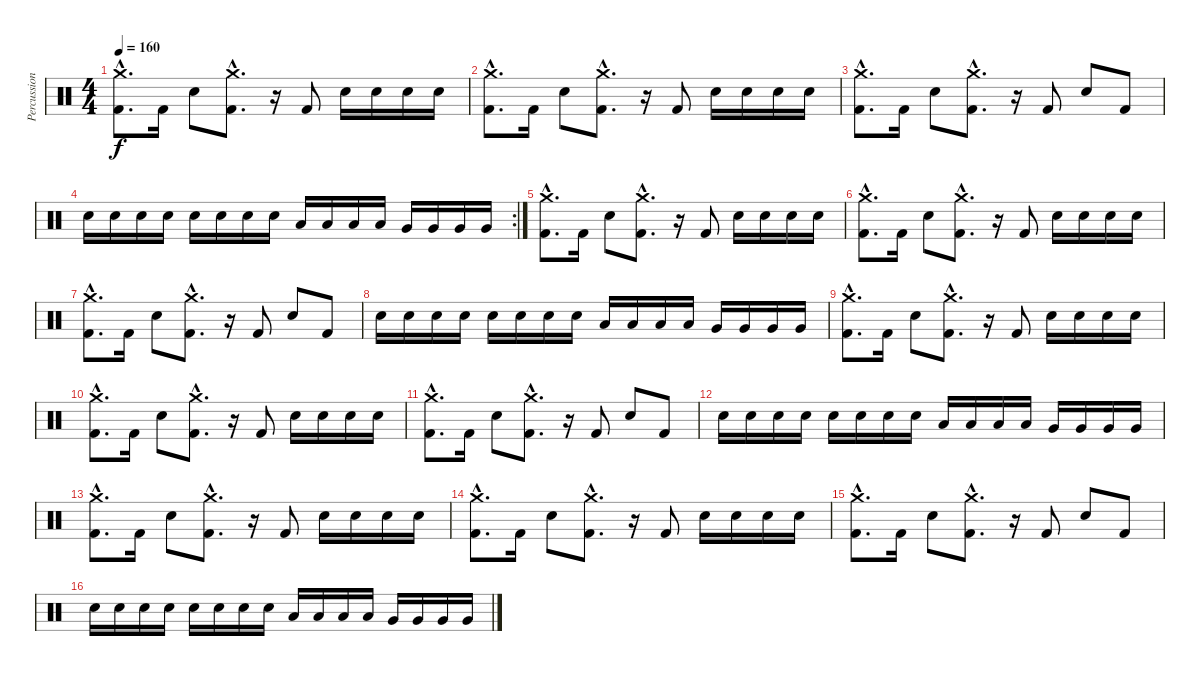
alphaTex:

\track ("Percussion" "Percussion") {instrument percussion}
\staff {score}
\articulation defaults
\ts (4 4)
\tempo 160
\clef neutral
\ks c
("Kick (hit) 2"{hac} "Crash medium (hit)"{hac}).8{d dy f} "Kick (hit) 2".16 "Electric Snare (hit)".8 ("Kick (hit) 2"{hac} "Crash medium (hit)"{hac}).8{d} r.16 "Kick (hit) 2".8 "Electric Snare (hit)".16 "Electric Snare (hit)".16 "Electric Snare (hit)".16 "Electric Snare (hit)".16 |
("Kick (hit) 2"{hac} "Crash medium (hit)"{hac}).8{d} "Kick (hit) 2".16 "Electric Snare (hit)".8 ("Kick (hit) 2"{hac} "Crash medium (hit)"{hac}).8{d} r.16 "Kick (hit) 2".8 "Electric Snare (hit)".16 "Electric Snare (hit)".16 "Electric Snare (hit)".16 "Electric Snare (hit)".16 |
("Kick (hit) 2"{hac} "Crash medium (hit)"{hac}).8{d} "Kick (hit) 2".16 "Electric Snare (hit)".8 ("Kick (hit) 2"{hac} "Crash medium (hit)"{hac}).8{d} r.16 "Kick (hit) 2".8 "Electric Snare (hit)".8 "Kick (hit) 2".8 |
\rc 2 "Electric Snare (hit)".16 "Electric Snare (hit)".16 "Electric Snare (hit)".16 "Electric Snare (hit)".16 "Electric Snare (hit)".16 "Electric Snare (hit)".16 "Electric Snare (hit)".16 "Electric Snare (hit)".16 "Low Tom (hit)".16 "Low Tom (hit)".16 "Low Tom (hit)".16 "Low Tom (hit)".16 "Very Low Tom (hit)".16 "Very Low Tom (hit)".16 "Very Low Tom (hit)".16 "Very Low Tom (hit)".16
|
("Kick (hit) 2"{hac} "Crash medium (hit)"{hac}).8{d} "Kick (hit) 2".16 "Electric Snare (hit)".8 ("Kick (hit) 2"{hac} "Crash medium (hit)"{hac}).8{d} r.16 "Kick (hit) 2".8 "Electric Snare (hit)".16 "Electric Snare (hit)".16 "Electric Snare (hit)".16 "Electric Snare (hit)".16 |
("Kick (hit) 2"{hac} "Crash medium (hit)"{hac}).8{d} "Kick (hit) 2".16 "Electric Snare (hit)".8 ("Kick (hit) 2"{hac} "Crash medium (hit)"{hac}).8{d} r.16 "Kick (hit) 2".8 "Electric Snare (hit)".16 "Electric Snare (hit)".16 "Electric Snare (hit)".16 "Electric Snare (hit)".16 |
("Kick (hit) 2"{hac} "Crash medium (hit)"{hac}).8{d} "Kick (hit) 2".16 "Electric Snare (hit)".8 ("Kick (hit) 2"{hac} "Crash medium (hit)"{hac}).8{d} r.16 "Kick (hit) 2".8 "Electric Snare (hit)".8 "Kick (hit) 2".8 |
"Electric Snare (hit)".16 "Electric Snare (hit)".16 "Electric Snare (hit)".16 "Electric Snare (hit)".16 "Electric Snare (hit)".16 "Electric Snare (hit)".16 "Electric Snare (hit)".16 "Electric Snare (hit)".16 "Low Tom (hit)".16 "Low Tom (hit)".16 "Low Tom (hit)".16 "Low Tom (hit)".16 "Very Low Tom (hit)".16 "Very Low Tom (hit)".16 "Very Low Tom (hit)".16 "Very Low Tom (hit)".16 |
("Kick (hit) 2"{hac} "Crash medium (hit)"{hac}).8{d} "Kick (hit) 2".16 "Electric Snare (hit)".8 ("Kick (hit) 2"{hac} "Crash medium (hit)"{hac}).8{d} r.16 "Kick (hit) 2".8 "Electric Snare (hit)".16 "Electric Snare (hit)".16 "Electric Snare (hit)".16 "Electric Snare (hit)".16 |
("Kick (hit) 2"{hac} "Crash medium (hit)"{hac}).8{d} "Kick (hit) 2".16 "Electric Snare (hit)".8 ("Kick (hit) 2"{hac} "Crash medium (hit)"{hac}).8{d} r.16 "Kick (hit) 2".8 "Electric Snare (hit)".16 "Electric Snare (hit)".16 "Electric Snare (hit)".16 "Electric Snare (hit)".16 |
("Kick (hit) 2"{hac} "Crash medium (hit)"{hac}).8{d} "Kick (hit) 2".16 "Electric Snare (hit)".8 ("Kick (hit) 2"{hac} "Crash medium (hit)"{hac}).8{d} r.16 "Kick (hit) 2".8 "Electric Snare (hit)".8 "Kick (hit) 2".8 |
"Electric Snare (hit)".16 "Electric Snare (hit)".16 "Electric Snare (hit)".16 "Electric Snare (hit)".16 "Electric Snare (hit)".16 "Electric Snare (hit)".16 "Electric Snare (hit)".16 "Electric Snare (hit)".16 "Low Tom (hit)".16 "Low Tom (hit)".16 "Low Tom (hit)".16 "Low Tom (hit)".16 "Very Low Tom (hit)".16 "Very Low Tom (hit)".16 "Very Low Tom (hit)".16 "Very Low Tom (hit)".16 |
("Kick (hit) 2"{hac} "Crash medium (hit)"{hac}).8{d} "Kick (hit) 2".16 "Electric Snare (hit)".8 ("Kick (hit) 2"{hac} "Crash medium (hit)"{hac}).8{d} r.16 "Kick (hit) 2".8 "Electric Snare (hit)".16 "Electric Snare (hit)".16 "Electric Snare (hit)".16 "Electric Snare (hit)".16 |
("Kick (hit) 2"{hac} "Crash medium (hit)"{hac}).8{d} "Kick (hit) 2".16 "Electric Snare (hit)".8 ("Kick (hit) 2"{hac} "Crash medium (hit)"{hac}).8{d} r.16 "Kick (hit) 2".8 "Electric Snare (hit)".16 "Electric Snare (hit)".16 "Electric Snare (hit)".16 "Electric Snare (hit)".16 |
("Kick (hit) 2"{hac} "Crash medium (hit)"{hac}).8{d} "Kick (hit) 2".16 "Electric Snare (hit)".8 ("Kick (hit) 2"{hac} "Crash medium (hit)"{hac}).8{d} r.16 "Kick (hit) 2".8 "Electric Snare (hit)".8 "Kick (hit) 2".8 |
"Electric Snare (hit)".16 "Electric Snare (hit)".16 "Electric Snare (hit)".16 "Electric Snare (hit)".16 "Electric Snare (hit)".16 "Electric Snare (hit)".16 "Electric Snare (hit)".16 "Electric Snare (hit)".16 "Low Tom (hit)".16 "Low Tom (hit)".16 "Low Tom (hit)".16 "Low Tom (hit)".16 "Very Low Tom (hit)".16 "Very Low Tom (hit)".16 "Very Low Tom (hit)".16 "Very Low Tom (hit)".16
